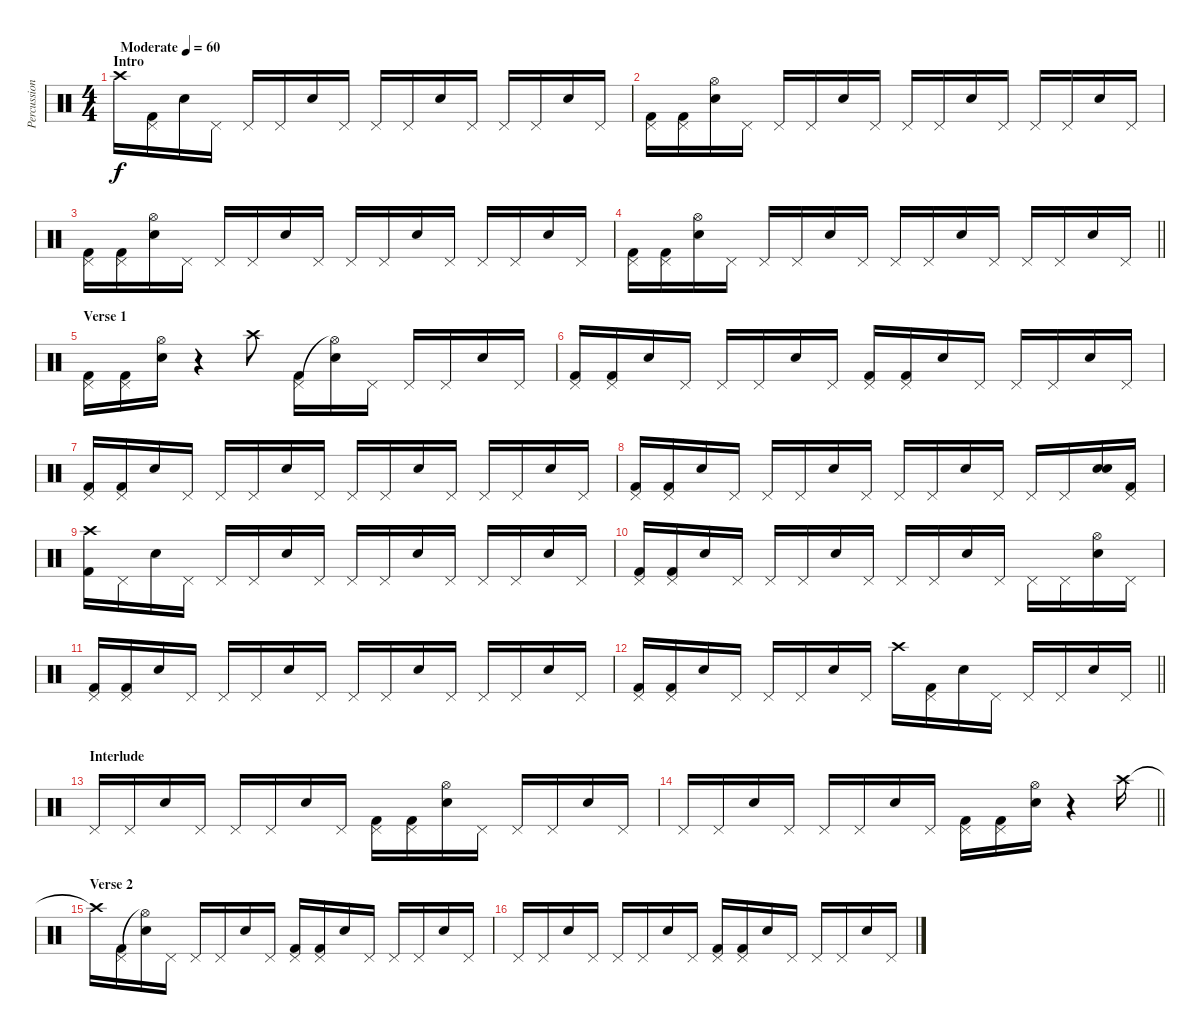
\track ("Percussion" "Percussion") {instrument percussion}
\staff {score}
\articulation defaults
\ts (4 4)
\section ("" "Intro")
\tempo (60 "Moderate")
\clef neutral
\ks c "Crash high (hit)".16{dy f}
("Pedal Hi-Hat (hit)" "Kick (hit) 2").16{volume 13} "Snare (hit) 2".16 "Pedal Hi-Hat (hit)".16 "Pedal Hi-Hat (hit)".16 "Pedal Hi-Hat (hit)".16 "Snare (hit) 2".16 "Pedal Hi-Hat (hit)".16 "Pedal Hi-Hat (hit)".16 "Pedal Hi-Hat (hit)".16 "Snare (hit) 2".16 "Pedal Hi-Hat (hit)".16 "Pedal Hi-Hat (hit)".16 "Pedal Hi-Hat (hit)".16 "Snare (hit) 2".16 "Pedal Hi-Hat (hit)".16 |
("Pedal Hi-Hat (hit)" "Kick (hit) 2").16 ("Pedal Hi-Hat (hit)" "Kick (hit) 2").16 ("Hi-Hat (open)" "Snare (hit) 2").16 "Pedal Hi-Hat (hit)".16 "Pedal Hi-Hat (hit)".16 "Pedal Hi-Hat (hit)".16 "Snare (hit) 2".16 "Pedal Hi-Hat (hit)".16 "Pedal Hi-Hat (hit)".16 "Pedal Hi-Hat (hit)".16 "Snare (hit) 2".16 "Pedal Hi-Hat (hit)".16 "Pedal Hi-Hat (hit)".16 "Pedal Hi-Hat (hit)".16 "Snare (hit) 2".16 "Pedal Hi-Hat (hit)".16 |
("Pedal Hi-Hat (hit)" "Kick (hit) 2").16 ("Pedal Hi-Hat (hit)" "Kick (hit) 2").16 ("Hi-Hat (open)" "Snare (hit) 2").16 "Pedal Hi-Hat (hit)".16 "Pedal Hi-Hat (hit)".16 "Pedal Hi-Hat (hit)".16 "Snare (hit) 2".16 "Pedal Hi-Hat (hit)".16 "Pedal Hi-Hat (hit)".16 "Pedal Hi-Hat (hit)".16 "Snare (hit) 2".16 "Pedal Hi-Hat (hit)".16 "Pedal Hi-Hat (hit)".16 "Pedal Hi-Hat (hit)".16 "Snare (hit) 2".16 "Pedal Hi-Hat (hit)".16 |
\barLineRight lightlight
("Pedal Hi-Hat (hit)" "Kick (hit) 2").16 ("Pedal Hi-Hat (hit)" "Kick (hit) 2").16 ("Hi-Hat (open)" "Snare (hit) 2").16 "Pedal Hi-Hat (hit)".16 "Pedal Hi-Hat (hit)".16 "Pedal Hi-Hat (hit)".16 "Snare (hit) 2".16 "Pedal Hi-Hat (hit)".16 "Pedal Hi-Hat (hit)".16 "Pedal Hi-Hat (hit)".16 "Snare (hit) 2".16 "Pedal Hi-Hat (hit)".16 "Pedal Hi-Hat (hit)".16 "Pedal Hi-Hat (hit)".16 "Snare (hit) 2".16 "Pedal Hi-Hat (hit)".16 |
\section ("" "Verse 1")
("Pedal Hi-Hat (hit)" "Kick (hit) 2").16 ("Pedal Hi-Hat (hit)" "Kick (hit) 2").16 ("Hi-Hat (open)" "Snare (hit) 2").16 r.4 "Crash high (hit)".8 ("Pedal Hi-Hat (hit)" "Kick (hit) 2").16{volume 13} ("Hi-Hat (open)"{t} "Snare (hit) 2").16 "Pedal Hi-Hat (hit)".16 "Pedal Hi-Hat (hit)".16 "Pedal Hi-Hat (hit)".16 "Snare (hit) 2".16 "Pedal Hi-Hat (hit)".16 |
("Pedal Hi-Hat (hit)" "Kick (hit) 2").16 ("Pedal Hi-Hat (hit)" "Kick (hit) 2").16 "Snare (hit) 2".16 "Pedal Hi-Hat (hit)".16 "Pedal Hi-Hat (hit)".16 "Pedal Hi-Hat (hit)".16 "Snare (hit) 2".16 "Pedal Hi-Hat (hit)".16 ("Pedal Hi-Hat (hit)" "Kick (hit) 2").16 ("Pedal Hi-Hat (hit)" "Kick (hit) 2").16 "Snare (hit) 2".16 "Pedal Hi-Hat (hit)".16 "Pedal Hi-Hat (hit)".16 "Pedal Hi-Hat (hit)".16 "Snare (hit) 2".16 "Pedal Hi-Hat (hit)".16 |
("Pedal Hi-Hat (hit)" "Kick (hit) 2").16 ("Pedal Hi-Hat (hit)" "Kick (hit) 2").16 "Snare (hit) 2".16 "Pedal Hi-Hat (hit)".16 "Pedal Hi-Hat (hit)".16 "Pedal Hi-Hat (hit)".16 "Snare (hit) 2".16 "Pedal Hi-Hat (hit)".16 "Pedal Hi-Hat (hit)".16 "Pedal Hi-Hat (hit)".16 "Snare (hit) 2".16 "Pedal Hi-Hat (hit)".16 "Pedal Hi-Hat (hit)".16 "Pedal Hi-Hat (hit)".16 "Snare (hit) 2".16 "Pedal Hi-Hat (hit)".16 |
("Pedal Hi-Hat (hit)" "Kick (hit) 2").16 ("Pedal Hi-Hat (hit)" "Kick (hit) 2").16 "Snare (hit) 2".16 "Pedal Hi-Hat (hit)".16 "Pedal Hi-Hat (hit)".16 "Pedal Hi-Hat (hit)".16 "Snare (hit) 2".16 "Pedal Hi-Hat (hit)".16 "Pedal Hi-Hat (hit)".16 "Pedal Hi-Hat (hit)".16 "Snare (hit) 2".16 "Pedal Hi-Hat (hit)".16 "Pedal Hi-Hat (hit)".16 "Pedal Hi-Hat (hit)".16 ("Electric Snare (hit)" "Snare (hit) 2").16 ("Pedal Hi-Hat (hit)" "Kick (hit) 2").16 |
("Crash high (hit)" "Kick (hit) 2").16 "Pedal Hi-Hat (hit)".16 "Snare (hit) 2".16 "Pedal Hi-Hat (hit)".16 "Pedal Hi-Hat (hit)".16 "Pedal Hi-Hat (hit)".16 "Snare (hit) 2".16 "Pedal Hi-Hat (hit)".16 "Pedal Hi-Hat (hit)".16 "Pedal Hi-Hat (hit)".16 "Snare (hit) 2".16 "Pedal Hi-Hat (hit)".16 "Pedal Hi-Hat (hit)".16 "Pedal Hi-Hat (hit)".16 "Snare (hit) 2".16 "Pedal Hi-Hat (hit)".16 |
("Pedal Hi-Hat (hit)" "Kick (hit) 2").16 ("Pedal Hi-Hat (hit)" "Kick (hit) 2").16 "Snare (hit) 2".16 "Pedal Hi-Hat (hit)".16 "Pedal Hi-Hat (hit)".16 "Pedal Hi-Hat (hit)".16 "Snare (hit) 2".16 "Pedal Hi-Hat (hit)".16 "Pedal Hi-Hat (hit)".16 "Pedal Hi-Hat (hit)".16 "Snare (hit) 2".16 "Pedal Hi-Hat (hit)".16 "Pedal Hi-Hat (hit)".16 "Pedal Hi-Hat (hit)".16 ("Hi-Hat (open)" "Snare (hit) 2").16 "Pedal Hi-Hat (hit)".16 |
("Pedal Hi-Hat (hit)" "Kick (hit) 2").16 ("Pedal Hi-Hat (hit)" "Kick (hit) 2").16 "Snare (hit) 2".16 "Pedal Hi-Hat (hit)".16 "Pedal Hi-Hat (hit)".16 "Pedal Hi-Hat (hit)".16 "Snare (hit) 2".16 "Pedal Hi-Hat (hit)".16 "Pedal Hi-Hat (hit)".16 "Pedal Hi-Hat (hit)".16 "Snare (hit) 2".16 "Pedal Hi-Hat (hit)".16 "Pedal Hi-Hat (hit)".16 "Pedal Hi-Hat (hit)".16 "Snare (hit) 2".16 "Pedal Hi-Hat (hit)".16 |
\barLineRight lightlight
("Pedal Hi-Hat (hit)" "Kick (hit) 2").16 ("Pedal Hi-Hat (hit)" "Kick (hit) 2").16 "Snare (hit) 2".16 "Pedal Hi-Hat (hit)".16 "Pedal Hi-Hat (hit)".16 "Pedal Hi-Hat (hit)".16 "Snare (hit) 2".16 "Pedal Hi-Hat (hit)".16 "Crash high (hit)".16 ("Pedal Hi-Hat (hit)" "Kick (hit) 2").16{volume 13} "Snare (hit) 2".16 "Pedal Hi-Hat (hit)".16 "Pedal Hi-Hat (hit)".16 "Pedal Hi-Hat (hit)".16 "Snare (hit) 2".16 "Pedal Hi-Hat (hit)".16 |
\section ("" "Interlude")
"Pedal Hi-Hat (hit)".16 "Pedal Hi-Hat (hit)".16 "Snare (hit) 2".16 "Pedal Hi-Hat (hit)".16 "Pedal Hi-Hat (hit)".16 "Pedal Hi-Hat (hit)".16 "Snare (hit) 2".16 "Pedal Hi-Hat (hit)".16 ("Pedal Hi-Hat (hit)" "Kick (hit) 2").16 ("Pedal Hi-Hat (hit)" "Kick (hit) 2").16 ("Hi-Hat (open)" "Snare (hit) 2").16 "Pedal Hi-Hat (hit)".16 "Pedal Hi-Hat (hit)".16 "Pedal Hi-Hat (hit)".16 "Snare (hit) 2".16 "Pedal Hi-Hat (hit)".16 |
\barLineRight lightlight "Pedal Hi-Hat (hit)".16 "Pedal Hi-Hat (hit)".16 "Snare (hit) 2".16 "Pedal Hi-Hat (hit)".16 "Pedal Hi-Hat (hit)".16 "Pedal Hi-Hat (hit)".16 "Snare (hit) 2".16 "Pedal Hi-Hat (hit)".16
("Pedal Hi-Hat (hit)" "Kick (hit) 2").16 ("Pedal Hi-Hat (hit)" "Kick (hit) 2").16 ("Hi-Hat (open)" "Snare (hit) 2").16 r.4 "Crash high (hit)".16 |
\section ("" "Verse 2")
"Crash high (hit)"{t}.16 ("Pedal Hi-Hat (hit)" "Kick (hit) 2").16{volume 13} ("Hi-Hat (open)"{t} "Snare (hit) 2").16 "Pedal Hi-Hat (hit)".16 "Pedal Hi-Hat (hit)".16 "Pedal Hi-Hat (hit)".16 "Snare (hit) 2".16 "Pedal Hi-Hat (hit)".16 ("Pedal Hi-Hat (hit)" "Kick (hit) 2").16 ("Pedal Hi-Hat (hit)" "Kick (hit) 2").16 "Snare (hit) 2".16 "Pedal Hi-Hat (hit)".16 "Pedal Hi-Hat (hit)".16 "Pedal Hi-Hat (hit)".16 "Snare (hit) 2".16 "Pedal Hi-Hat (hit)".16 |
"Pedal Hi-Hat (hit)".16 "Pedal Hi-Hat (hit)".16 "Snare (hit) 2".16 "Pedal Hi-Hat (hit)".16 "Pedal Hi-Hat (hit)".16 "Pedal Hi-Hat (hit)".16 "Snare (hit) 2".16 "Pedal Hi-Hat (hit)".16 ("Pedal Hi-Hat (hit)" "Kick (hit) 2").16 ("Pedal Hi-Hat (hit)" "Kick (hit) 2").16 "Snare (hit) 2".16 "Pedal Hi-Hat (hit)".16 "Pedal Hi-Hat (hit)".16 "Pedal Hi-Hat (hit)".16 "Snare (hit) 2".16 "Pedal Hi-Hat (hit)".16
